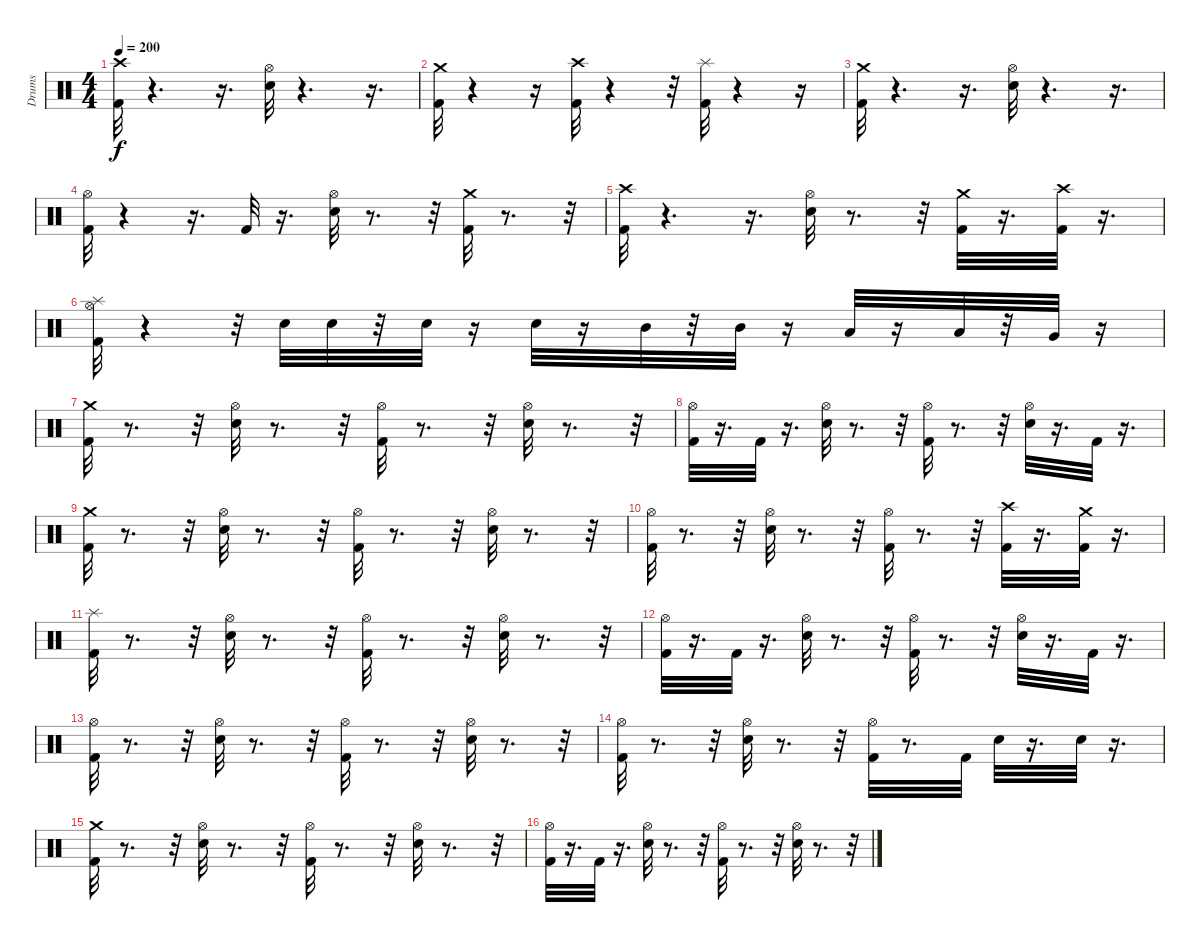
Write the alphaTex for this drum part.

\track ("Drums" "Drums") {instrument percussion}
\staff {score}
\articulation defaults
\ts (4 4)
\tempo 200
\clef neutral
\ks c
("Crash high (hit)" "Kick (hit) 2").32{dy f} r.4{d} r.16{d} ("Hi-Hat (open)" "Electric Snare (hit)").32 r.4{d} r.16{d} |
("Crash medium (hit)" "Kick (hit) 2").32 r.4 r.16 ("Kick (hit) 2" "Crash high (hit)").32 r.4 r.32 ("Kick (hit) 2" "Splash (hit)").32 r.4 r.16 |
("Crash medium (hit)" "Kick (hit) 2").32 r.4{d} r.16{d} ("Hi-Hat (open)" "Electric Snare (hit)").32 r.4{d} r.16{d} |
("Hi-Hat (open)" "Kick (hit) 2").32 r.4 r.16{d} "Kick (hit) 2".32 r.16{d} ("Electric Snare (hit)" "Hi-Hat (open)").32 r.8{d} r.32 ("Crash medium (hit)" "Kick (hit) 2").32 r.8{d} r.32 |
("Crash high (hit)" "Kick (hit) 2").32 r.4{d} r.16{d} ("Electric Snare (hit)" "Hi-Hat (open)").32 r.8{d} r.32 ("Crash medium (hit)" "Kick (hit) 2").32 r.16{d} ("Crash high (hit)" "Kick (hit) 2").32 r.16{d} |
("Splash (hit)" "Kick (hit) 2" "Hi-Hat (open)").32 r.4 r.32 "Electric Snare (hit)".32 "Electric Snare (hit)".32 r.32 "Electric Snare (hit)".32 r.16 "Electric Snare (hit)".32 r.16 "Mid Tom (hit)".32 r.32 "Mid Tom (hit)".32 r.16 "Low Tom (hit)".32 r.16 "Low Tom (hit)".32 r.32 "Very Low Tom (hit)".32 r.16 |
("Crash medium (hit)" "Kick (hit) 2").32 r.8{d} r.32 ("Hi-Hat (open)" "Electric Snare (hit)").32 r.8{d} r.32 ("Hi-Hat (open)" "Kick (hit) 2").32 r.8{d} r.32 ("Hi-Hat (open)" "Electric Snare (hit)").32 r.8{d} r.32 |
("Kick (hit) 2" "Hi-Hat (open)").32 r.16{d} "Kick (hit) 2".32 r.16{d} ("Hi-Hat (open)" "Electric Snare (hit)").32 r.8{d} r.32 ("Hi-Hat (open)" "Kick (hit) 2").32 r.8{d} r.32 ("Hi-Hat (open)" "Electric Snare (hit)").32 r.16{d} "Kick (hit) 2".32 r.16{d} |
("Crash medium (hit)" "Kick (hit) 2").32 r.8{d} r.32 ("Hi-Hat (open)" "Electric Snare (hit)").32 r.8{d} r.32 ("Hi-Hat (open)" "Kick (hit) 2").32 r.8{d} r.32 ("Hi-Hat (open)" "Electric Snare (hit)").32 r.8{d} r.32 |
("Hi-Hat (open)" "Kick (hit) 2").32 r.8{d} r.32 ("Hi-Hat (open)" "Electric Snare (hit)").32 r.8{d} r.32 ("Hi-Hat (open)" "Kick (hit) 2").32 r.8{d} r.32 ("Crash high (hit)" "Kick (hit) 2").32 r.16{d} ("Kick (hit) 2" "Crash medium (hit)").32 r.16{d} |
("Splash (hit)" "Kick (hit) 2").32 r.8{d} r.32 ("Hi-Hat (open)" "Electric Snare (hit)").32 r.8{d} r.32 ("Hi-Hat (open)" "Kick (hit) 2").32 r.8{d} r.32 ("Hi-Hat (open)" "Electric Snare (hit)").32 r.8{d} r.32 |
("Hi-Hat (open)" "Kick (hit) 2").32 r.16{d} "Kick (hit) 2".32 r.16{d} ("Hi-Hat (open)" "Electric Snare (hit)").32 r.8{d} r.32 ("Hi-Hat (open)" "Kick (hit) 2").32 r.8{d} r.32 ("Hi-Hat (open)" "Electric Snare (hit)").32 r.16{d} "Kick (hit) 2".32 r.16{d} |
("Hi-Hat (open)" "Kick (hit) 2").32 r.8{d} r.32 ("Hi-Hat (open)" "Electric Snare (hit)").32 r.8{d} r.32 ("Hi-Hat (open)" "Kick (hit) 2").32 r.8{d} r.32 ("Hi-Hat (open)" "Electric Snare (hit)").32 r.8{d} r.32 |
("Hi-Hat (open)" "Kick (hit) 2").32 r.8{d} r.32 ("Hi-Hat (open)" "Electric Snare (hit)").32 r.8{d} r.32 ("Hi-Hat (open)" "Kick (hit) 2").32 r.8{d} "Kick (hit) 2".32 "Electric Snare (hit)".32 r.16{d} "Electric Snare (hit)".32 r.16{d} |
("Crash medium (hit)" "Kick (hit) 2").32 r.8{d} r.32 ("Hi-Hat (open)" "Electric Snare (hit)").32 r.8{d} r.32 ("Hi-Hat (open)" "Kick (hit) 2").32 r.8{d} r.32 ("Hi-Hat (open)" "Electric Snare (hit)").32 r.8{d} r.32 |
("Hi-Hat (open)" "Kick (hit) 2").32 r.16{d} "Kick (hit) 2".32 r.16{d} ("Hi-Hat (open)" "Electric Snare (hit)").32 r.8{d} r.32 ("Hi-Hat (open)" "Kick (hit) 2").32 r.8{d} r.32 ("Hi-Hat (open)" "Electric Snare (hit)").32 r.8{d} r.32
